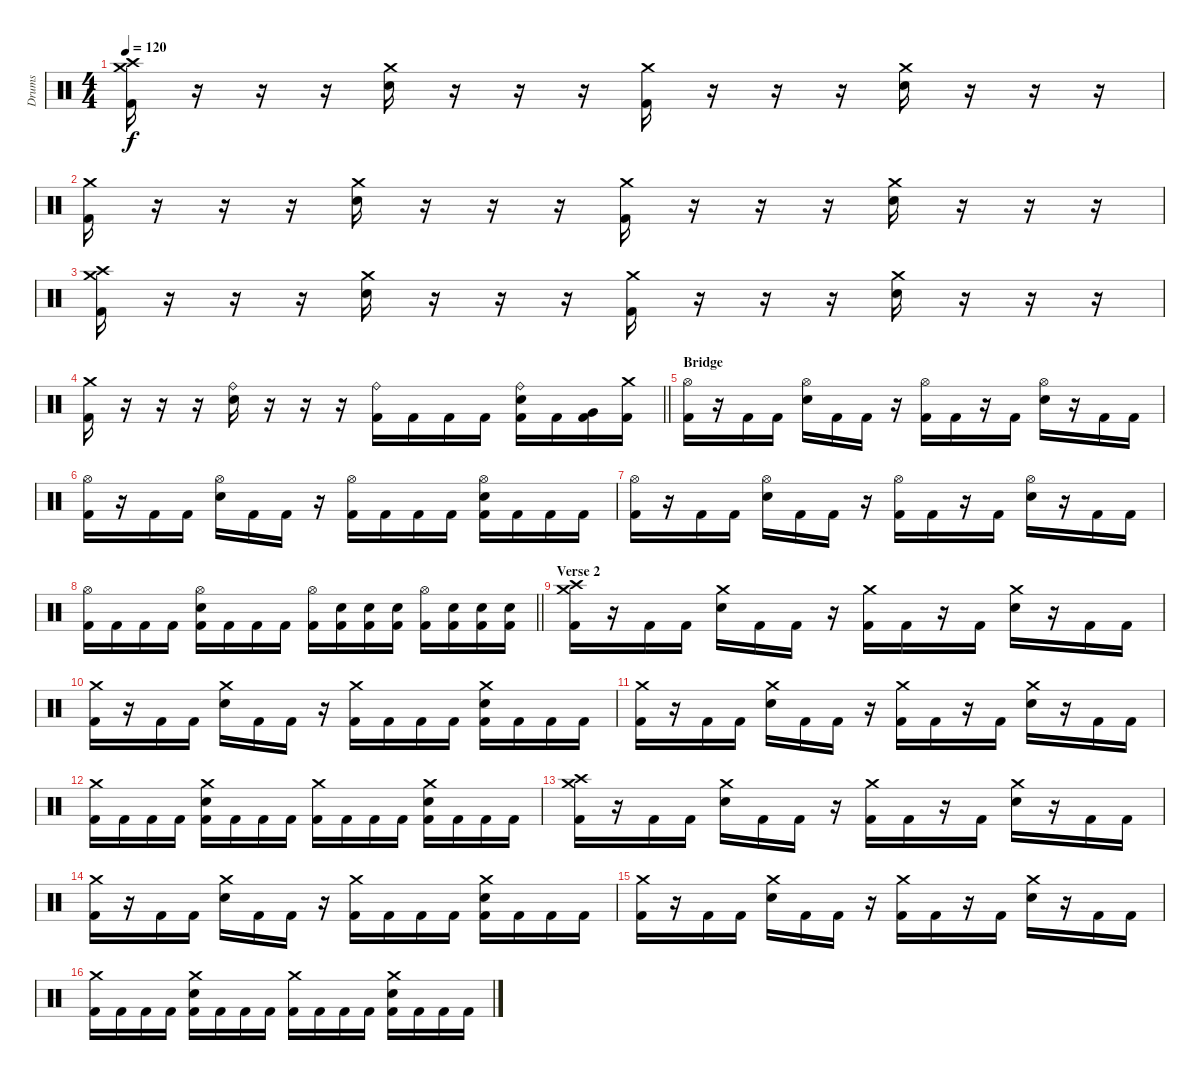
\track ("Drums" "Drums") {instrument percussion}
\staff {score}
\articulation defaults
\ts (4 4)
\tempo 120
\clef neutral
\ks c
("Crash medium (hit)" "Crash high (hit)" "Kick (hit) 2").16{dy f} r.16 r.16 r.16 ("Crash medium (hit)" "Electric Snare (hit)").16 r.16 r.16 r.16 ("Crash medium (hit)" "Kick (hit) 2").16 r.16 r.16 r.16 ("Crash medium (hit)" "Electric Snare (hit)").16 r.16 r.16 r.16 |
("Crash medium (hit)" "Kick (hit) 2").16 r.16 r.16 r.16 ("Crash medium (hit)" "Electric Snare (hit)").16 r.16 r.16 r.16 ("Crash medium (hit)" "Kick (hit) 2").16 r.16 r.16 r.16 ("Crash medium (hit)" "Electric Snare (hit)").16 r.16 r.16 r.16 |
("Crash medium (hit)" "Crash high (hit)" "Kick (hit) 2").16 r.16 r.16 r.16 ("Crash medium (hit)" "Electric Snare (hit)").16 r.16 r.16 r.16 ("Crash medium (hit)" "Kick (hit) 2").16 r.16 r.16 r.16 ("Crash medium (hit)" "Electric Snare (hit)").16 r.16 r.16 r.16 |
\barLineRight lightlight
("Crash medium (hit)" "Kick (hit) 2").16 r.16 r.16 r.16 ("Ride (bell)" "Electric Snare (hit)").16 r.16 r.16 r.16 ("Ride (bell)" "Kick (hit) 2").16 "Kick (hit) 2".16 "Kick (hit) 2".16 "Kick (hit) 2".16 ("Ride (bell)" "Electric Snare (hit)" "Kick (hit) 2").16 "Kick (hit) 2".16 ("Very Low Tom (hit)" "Kick (hit) 2").16 ("Crash medium (hit)" "Kick (hit) 2").16 |
\section ("" "Bridge")
("Hi-Hat (open)" "Kick (hit) 2").16 r.16 "Kick (hit) 2".16 "Kick (hit) 2".16 ("Hi-Hat (open)" "Electric Snare (hit)").16 "Kick (hit) 2".16 "Kick (hit) 2".16 r.16 ("Hi-Hat (open)" "Kick (hit) 2").16 "Kick (hit) 2".16 r.16 "Kick (hit) 2".16 ("Hi-Hat (open)" "Electric Snare (hit)").16 r.16 "Kick (hit) 2".16 "Kick (hit) 2".16 |
("Hi-Hat (open)" "Kick (hit) 2").16 r.16 "Kick (hit) 2".16 "Kick (hit) 2".16 ("Hi-Hat (open)" "Electric Snare (hit)").16 "Kick (hit) 2".16 "Kick (hit) 2".16 r.16 ("Hi-Hat (open)" "Kick (hit) 2").16 "Kick (hit) 2".16 "Kick (hit) 2".16 "Kick (hit) 2".16 ("Hi-Hat (open)" "Electric Snare (hit)" "Kick (hit) 2").16 "Kick (hit) 2".16 "Kick (hit) 2".16 "Kick (hit) 2".16 |
("Hi-Hat (open)" "Kick (hit) 2").16 r.16 "Kick (hit) 2".16 "Kick (hit) 2".16 ("Hi-Hat (open)" "Electric Snare (hit)").16 "Kick (hit) 2".16 "Kick (hit) 2".16 r.16 ("Hi-Hat (open)" "Kick (hit) 2").16 "Kick (hit) 2".16 r.16 "Kick (hit) 2".16 ("Hi-Hat (open)" "Electric Snare (hit)").16 r.16 "Kick (hit) 2".16 "Kick (hit) 2".16 |
\barLineRight lightlight
("Hi-Hat (open)" "Kick (hit) 2").16 "Kick (hit) 2".16 "Kick (hit) 2".16 "Kick (hit) 2".16 ("Hi-Hat (open)" "Electric Snare (hit)" "Kick (hit) 2").16 "Kick (hit) 2".16 "Kick (hit) 2".16 "Kick (hit) 2".16 ("Hi-Hat (open)" "Kick (hit) 2").16 ("Electric Snare (hit)" "Kick (hit) 2").16 ("Electric Snare (hit)" "Kick (hit) 2").16 ("Electric Snare (hit)" "Kick (hit) 2").16 ("Hi-Hat (open)" "Kick (hit) 2").16 ("Electric Snare (hit)" "Kick (hit) 2").16 ("Electric Snare (hit)" "Kick (hit) 2").16 ("Electric Snare (hit)" "Kick (hit) 2").16 |
\section ("" "Verse 2")
("Crash high (hit)" "Crash medium (hit)" "Kick (hit) 2").16 r.16 "Kick (hit) 2".16 "Kick (hit) 2".16 ("Crash medium (hit)" "Electric Snare (hit)").16 "Kick (hit) 2".16 "Kick (hit) 2".16 r.16 ("Crash medium (hit)" "Kick (hit) 2").16 "Kick (hit) 2".16 r.16 "Kick (hit) 2".16 ("Crash medium (hit)" "Electric Snare (hit)").16 r.16 "Kick (hit) 2".16 "Kick (hit) 2".16 |
("Crash medium (hit)" "Kick (hit) 2").16 r.16 "Kick (hit) 2".16 "Kick (hit) 2".16 ("Crash medium (hit)" "Electric Snare (hit)").16 "Kick (hit) 2".16 "Kick (hit) 2".16 r.16 ("Crash medium (hit)" "Kick (hit) 2").16 "Kick (hit) 2".16 "Kick (hit) 2".16 "Kick (hit) 2".16 ("Crash medium (hit)" "Electric Snare (hit)" "Kick (hit) 2").16 "Kick (hit) 2".16 "Kick (hit) 2".16 "Kick (hit) 2".16 |
("Crash medium (hit)" "Kick (hit) 2").16 r.16 "Kick (hit) 2".16 "Kick (hit) 2".16 ("Crash medium (hit)" "Electric Snare (hit)").16 "Kick (hit) 2".16 "Kick (hit) 2".16 r.16 ("Crash medium (hit)" "Kick (hit) 2").16 "Kick (hit) 2".16 r.16 "Kick (hit) 2".16 ("Crash medium (hit)" "Electric Snare (hit)").16 r.16 "Kick (hit) 2".16 "Kick (hit) 2".16 |
("Crash medium (hit)" "Kick (hit) 2").16 "Kick (hit) 2".16 "Kick (hit) 2".16 "Kick (hit) 2".16 ("Crash medium (hit)" "Electric Snare (hit)" "Kick (hit) 2").16 "Kick (hit) 2".16 "Kick (hit) 2".16 "Kick (hit) 2".16 ("Crash medium (hit)" "Kick (hit) 2").16 "Kick (hit) 2".16 "Kick (hit) 2".16 "Kick (hit) 2".16 ("Crash medium (hit)" "Electric Snare (hit)" "Kick (hit) 2").16 "Kick (hit) 2".16 "Kick (hit) 2".16 "Kick (hit) 2".16 |
("Crash high (hit)" "Crash medium (hit)" "Kick (hit) 2").16 r.16 "Kick (hit) 2".16 "Kick (hit) 2".16 ("Crash medium (hit)" "Electric Snare (hit)").16 "Kick (hit) 2".16 "Kick (hit) 2".16 r.16 ("Crash medium (hit)" "Kick (hit) 2").16 "Kick (hit) 2".16 r.16 "Kick (hit) 2".16 ("Crash medium (hit)" "Electric Snare (hit)").16 r.16 "Kick (hit) 2".16 "Kick (hit) 2".16 |
("Crash medium (hit)" "Kick (hit) 2").16 r.16 "Kick (hit) 2".16 "Kick (hit) 2".16 ("Crash medium (hit)" "Electric Snare (hit)").16 "Kick (hit) 2".16 "Kick (hit) 2".16 r.16 ("Crash medium (hit)" "Kick (hit) 2").16 "Kick (hit) 2".16 "Kick (hit) 2".16 "Kick (hit) 2".16 ("Crash medium (hit)" "Electric Snare (hit)" "Kick (hit) 2").16 "Kick (hit) 2".16 "Kick (hit) 2".16 "Kick (hit) 2".16 |
("Crash medium (hit)" "Kick (hit) 2").16 r.16 "Kick (hit) 2".16 "Kick (hit) 2".16 ("Crash medium (hit)" "Electric Snare (hit)").16 "Kick (hit) 2".16 "Kick (hit) 2".16 r.16 ("Crash medium (hit)" "Kick (hit) 2").16 "Kick (hit) 2".16 r.16 "Kick (hit) 2".16 ("Crash medium (hit)" "Electric Snare (hit)").16 r.16 "Kick (hit) 2".16 "Kick (hit) 2".16 |
("Crash medium (hit)" "Kick (hit) 2").16 "Kick (hit) 2".16 "Kick (hit) 2".16 "Kick (hit) 2".16 ("Crash medium (hit)" "Electric Snare (hit)" "Kick (hit) 2").16 "Kick (hit) 2".16 "Kick (hit) 2".16 "Kick (hit) 2".16 ("Crash medium (hit)" "Kick (hit) 2").16 "Kick (hit) 2".16 "Kick (hit) 2".16 "Kick (hit) 2".16 ("Crash medium (hit)" "Electric Snare (hit)" "Kick (hit) 2").16 "Kick (hit) 2".16 "Kick (hit) 2".16 "Kick (hit) 2".16
